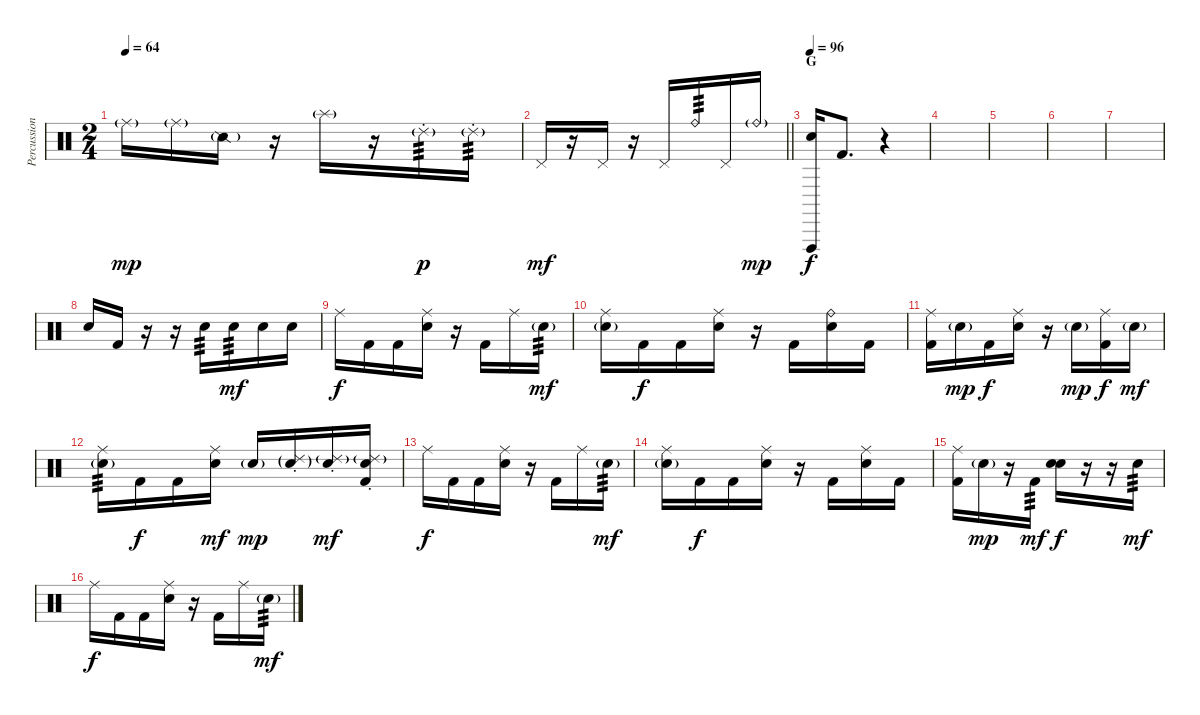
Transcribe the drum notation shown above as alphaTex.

\track ("Percussion" "Percussion") {instrument percussion}
\staff {score}
\articulation defaults
\ts (2 4)
\tempo 64
\clef neutral
\ks c "Ride (middle)"{g}.16{dy mp} "Ride (middle)"{g}.16 "Snare (side stick) 2"{g}.16
r.16 "Splash (hit)"{g}.16 r.16 "Ride (choke) 2"{g}.16{tp 3 dy p} "Ride (choke) 2"{g}.16{tp 3} |
\barLineRight lightlight "Pedal Hi-Hat (hit)".16{dy mf}
r.16 "Pedal Hi-Hat (hit)".16 r.16 "Pedal Hi-Hat (hit)".16 "Ride (bell)".16{tp 3} "Pedal Hi-Hat (hit)".16 "Ride (bell)"{g}.16{dy mp} |
\section ("" "G")
\tempo 96
("Vibraslap (hit)" "Snare (hit) 2").16{dy f} "Kick (hit) 2".8{d} r.4 |
|
|
|
|
"Snare (hit) 2".16 "Kick (hit) 2".16 r.16 r.16 "Snare (hit) 2".16{tp 3} "Snare (hit) 2".16{tp 3 dy mf} "Snare (hit) 2".16 "Snare (hit) 2".16 |
"Ride (middle)".16{dy f} "Kick (hit) 2".16 "Kick (hit) 2".16 ("Ride (middle)" "Snare (hit) 2").16 r.16 "Kick (hit) 2".16 "Ride (middle)".16 "Snare (hit) 2"{g}.16{tp 3 dy mf} |
("Ride (middle)" "Snare (hit) 2"{g}).16 "Kick (hit) 2".16{dy f} "Kick (hit) 2".16 ("Ride (middle)" "Snare (hit) 2").16 r.16 "Kick (hit) 2".16 ("Ride (bell)" "Snare (hit) 2").16 "Kick (hit) 2".16 |
("Ride (middle)" "Kick (hit) 2").16 "Snare (hit) 2"{g}.16{dy mp} "Kick (hit) 2".16{dy f} ("Ride (middle)" "Snare (hit) 2").16 r.16 "Snare (hit) 2"{g}.16{dy mp} ("Ride (middle)" "Kick (hit) 2").16{dy f} "Snare (hit) 2"{g}.16{dy mf} |
("Ride (middle)" "Snare (hit) 2"{g}).16{tp 3} "Kick (hit) 2".16{dy f} "Kick (hit) 2".16 ("Ride (middle)" "Snare (hit) 2").16{dy mf} "Snare (hit) 2"{g}.16{dy mp} ("Ride (choke) 2"{g} "Snare (hit) 2"{g}).16 ("Ride (choke) 2"{g} "Snare (hit) 2").16{dy mf} ("Ride (choke) 2"{g} "Snare (hit) 2" "Kick (hit) 2").16 |
"Ride (middle)".16{dy f} "Kick (hit) 2".16 "Kick (hit) 2".16 ("Ride (middle)" "Snare (hit) 2").16 r.16 "Kick (hit) 2".16 "Ride (middle)".16 "Snare (hit) 2"{g}.16{tp 3 dy mf} |
("Ride (middle)" "Snare (hit) 2"{g}).16 "Kick (hit) 2".16{dy f} "Kick (hit) 2".16 ("Ride (middle)" "Snare (hit) 2").16 r.16 "Kick (hit) 2".16 ("Ride (middle)" "Snare (hit) 2").16 "Kick (hit) 2".16 |
("Ride (middle)" "Kick (hit) 2").16 "Snare (hit) 2"{g}.16{dy mp} r.16 "Kick (hit) 2".16{tp 3 dy mf} ("Snare (hit)" "Snare (hit) 2").16{dy f} r.16 r.16 "Snare (hit) 2".16{tp 3 dy mf} |
"Ride (middle)".16{dy f} "Kick (hit) 2".16 "Kick (hit) 2".16 ("Ride (middle)" "Snare (hit) 2").16 r.16 "Kick (hit) 2".16 "Ride (middle)".16 "Snare (hit) 2"{g}.16{tp 3 dy mf}
